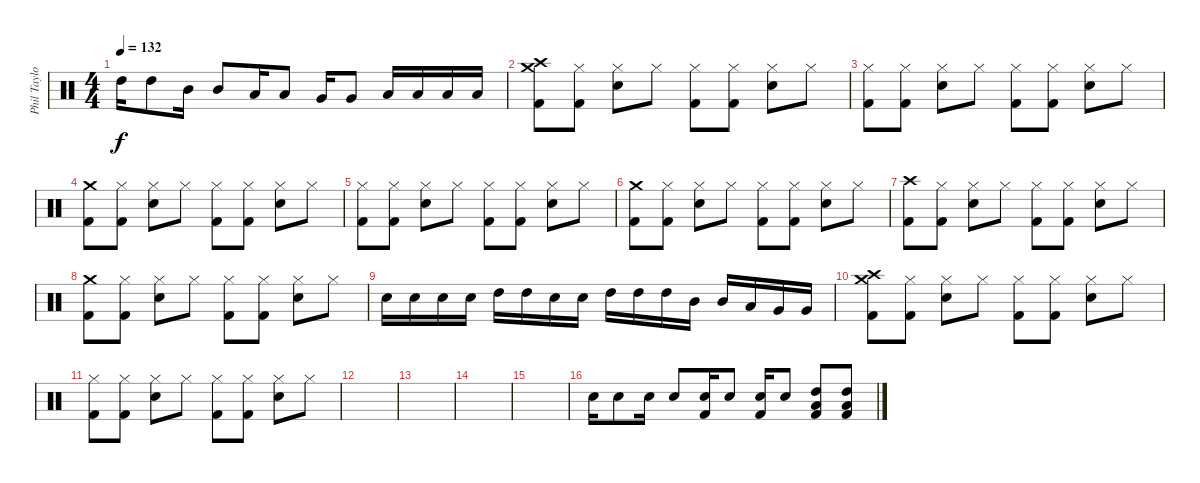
\track ("Phil Taylor" "Phil Taylo") {instrument percussion}
\staff {score}
\articulation defaults
\ts (4 4)
\tempo 132
\clef neutral
\ks c "High Tom (hit)".16{dy f} "High Tom (hit)".8 "Mid Tom (hit)".16 "Mid Tom (hit)".8 "Low Tom (hit)".16 "Low Tom (hit)".8 "Very Low Tom (hit)".16 "Very Low Tom (hit)".8 "Low Floor Tom (hit)".16 "Low Floor Tom (hit)".16 "Low Floor Tom (hit)".16 "Low Floor Tom (hit)".16
|
("Crash medium (hit)" "Crash high (hit)" "Kick (hit) 2").8 ("Hi-Hat (closed)" "Kick (hit) 2").8 ("Hi-Hat (closed)" "Snare (hit) 2").8 "Hi-Hat (closed)".8 ("Hi-Hat (closed)" "Kick (hit) 2").8 ("Hi-Hat (closed)" "Kick (hit) 2").8 ("Hi-Hat (closed)" "Snare (hit) 2").8 "Hi-Hat (closed)".8 |
("Hi-Hat (closed)" "Kick (hit) 2").8 ("Hi-Hat (closed)" "Kick (hit) 2").8 ("Hi-Hat (closed)" "Snare (hit) 2").8 "Hi-Hat (closed)".8 ("Hi-Hat (closed)" "Kick (hit) 2").8 ("Hi-Hat (closed)" "Kick (hit) 2").8 ("Hi-Hat (closed)" "Snare (hit) 2").8 "Hi-Hat (closed)".8 |
("Crash medium (hit)" "Kick (hit) 2").8 ("Hi-Hat (closed)" "Kick (hit) 2").8 ("Hi-Hat (closed)" "Snare (hit) 2").8 "Hi-Hat (closed)".8 ("Hi-Hat (closed)" "Kick (hit) 2").8 ("Hi-Hat (closed)" "Kick (hit) 2").8 ("Hi-Hat (closed)" "Snare (hit) 2").8 "Hi-Hat (closed)".8 |
("Hi-Hat (closed)" "Kick (hit) 2").8 ("Hi-Hat (closed)" "Kick (hit) 2").8 ("Hi-Hat (closed)" "Snare (hit) 2").8 "Hi-Hat (closed)".8 ("Hi-Hat (closed)" "Kick (hit) 2").8 ("Hi-Hat (closed)" "Kick (hit) 2").8 ("Hi-Hat (closed)" "Snare (hit) 2").8 "Hi-Hat (closed)".8 |
("Crash medium (hit)" "Kick (hit) 2").8 ("Hi-Hat (closed)" "Kick (hit) 2").8 ("Hi-Hat (closed)" "Snare (hit) 2").8 "Hi-Hat (closed)".8 ("Hi-Hat (closed)" "Kick (hit) 2").8 ("Hi-Hat (closed)" "Kick (hit) 2").8 ("Hi-Hat (closed)" "Snare (hit) 2").8 "Hi-Hat (closed)".8 |
("Crash high (hit)" "Kick (hit) 2").8 ("Hi-Hat (closed)" "Kick (hit) 2").8 ("Hi-Hat (closed)" "Snare (hit) 2").8 "Hi-Hat (closed)".8 ("Hi-Hat (closed)" "Kick (hit) 2").8 ("Hi-Hat (closed)" "Kick (hit) 2").8 ("Hi-Hat (closed)" "Snare (hit) 2").8 "Hi-Hat (closed)".8 |
("Crash medium (hit)" "Kick (hit) 2").8 ("Hi-Hat (closed)" "Kick (hit) 2").8 ("Hi-Hat (closed)" "Snare (hit) 2").8 "Hi-Hat (closed)".8 ("Hi-Hat (closed)" "Kick (hit) 2").8 ("Hi-Hat (closed)" "Kick (hit) 2").8 ("Hi-Hat (closed)" "Snare (hit) 2").8 "Hi-Hat (closed)".8 |
"Snare (hit) 2".16 "Snare (hit) 2".16 "Snare (hit) 2".16 "Snare (hit) 2".16 "High Tom (hit)".16 "High Tom (hit)".16 "Snare (hit) 2".16 "Snare (hit) 2".16 "High Tom (hit)".16 "High Tom (hit)".16 "High Tom (hit)".16 "Mid Tom (hit)".16 "Mid Tom (hit)".16 "Low Tom (hit)".16 "Very Low Tom (hit)".16 "Very Low Tom (hit)".16 |
("Crash medium (hit)" "Crash high (hit)" "Kick (hit) 2").8 ("Hi-Hat (closed)" "Kick (hit) 2").8 ("Hi-Hat (closed)" "Snare (hit) 2").8 "Hi-Hat (closed)".8 ("Hi-Hat (closed)" "Kick (hit) 2").8 ("Hi-Hat (closed)" "Kick (hit) 2").8 ("Hi-Hat (closed)" "Snare (hit) 2").8 "Hi-Hat (closed)".8 |
("Hi-Hat (closed)" "Kick (hit) 2").8 ("Hi-Hat (closed)" "Kick (hit) 2").8 ("Hi-Hat (closed)" "Snare (hit) 2").8 "Hi-Hat (closed)".8 ("Hi-Hat (closed)" "Kick (hit) 2").8 ("Hi-Hat (closed)" "Kick (hit) 2").8 ("Hi-Hat (closed)" "Snare (hit) 2").8 "Hi-Hat (closed)".8 |
|
|
|
|
"Snare (hit) 2".16 "Snare (hit) 2".8 "Snare (hit) 2".16 "Snare (hit) 2".8 ("Snare (hit) 2" "Kick (hit) 2").16 "Snare (hit) 2".8 ("Snare (hit) 2" "Kick (hit) 2").16 "Snare (hit) 2".8 ("High Tom (hit)" "Low Floor Tom (hit)" "Kick (hit) 2").8 ("High Tom (hit)" "Low Floor Tom (hit)" "Kick (hit) 2").8
